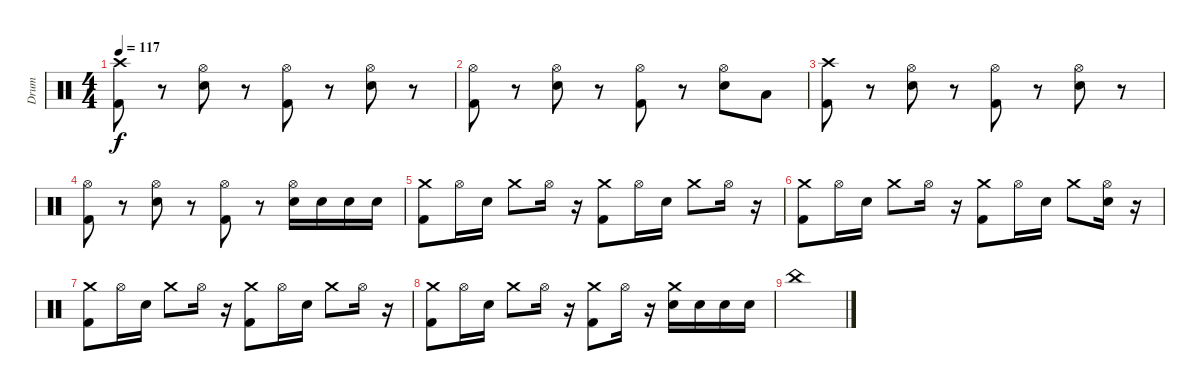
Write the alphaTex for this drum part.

\track ("Drum" "Drum") {instrument percussion}
\staff {score}
\articulation defaults
\ts (4 4)
\tempo 117
\clef neutral
\ks c
("Crash high (hit)" "Kick (hit) 2").8{dy f} r.8 ("Hi-Hat (open)" "Electric Snare (hit)").8 r.8 ("Hi-Hat (open)" "Kick (hit) 2").8 r.8 ("Hi-Hat (open)" "Electric Snare (hit)").8 r.8 |
("Hi-Hat (open)" "Kick (hit) 2").8 r.8 ("Hi-Hat (open)" "Electric Snare (hit)").8 r.8 ("Hi-Hat (open)" "Kick (hit) 2").8 r.8 ("Hi-Hat (open)" "Electric Snare (hit)").8 "Low Tom (hit)".8 |
("Crash high (hit)" "Kick (hit) 2").8 r.8 ("Hi-Hat (open)" "Electric Snare (hit)").8 r.8 ("Hi-Hat (open)" "Kick (hit) 2").8 r.8 ("Hi-Hat (open)" "Electric Snare (hit)").8 r.8 |
("Hi-Hat (open)" "Kick (hit) 2").8 r.8 ("Hi-Hat (open)" "Electric Snare (hit)").8 r.8 ("Hi-Hat (open)" "Kick (hit) 2").8 r.8 ("Hi-Hat (open)" "Electric Snare (hit)").16 "Electric Snare (hit)".16 "Electric Snare (hit)".16 "Electric Snare (hit)".16 |
("Crash medium (hit)" "Kick (hit) 2").8 "Hi-Hat (open)".16 "Electric Snare (hit)".16 "Crash medium (hit)".8 "Hi-Hat (open)".16 r.16 ("Crash medium (hit)" "Kick (hit) 2").8 "Hi-Hat (open)".16 "Electric Snare (hit)".16 "Crash medium (hit)".8 "Hi-Hat (open)".16 r.16 |
("Crash medium (hit)" "Kick (hit) 2").8 "Hi-Hat (open)".16 "Electric Snare (hit)".16 "Crash medium (hit)".8 "Hi-Hat (open)".16 r.16 ("Crash medium (hit)" "Kick (hit) 2").8 "Hi-Hat (open)".16 "Electric Snare (hit)".16 "Crash medium (hit)".8 ("Hi-Hat (open)" "Electric Snare (hit)").16 r.16 |
("Crash medium (hit)" "Kick (hit) 2").8 "Hi-Hat (open)".16 "Electric Snare (hit)".16 "Crash medium (hit)".8 "Hi-Hat (open)".16 r.16 ("Crash medium (hit)" "Kick (hit) 2").8 "Hi-Hat (open)".16 "Electric Snare (hit)".16 "Crash medium (hit)".8 "Hi-Hat (open)".16 r.16 |
("Crash medium (hit)" "Kick (hit) 2").8 "Hi-Hat (open)".16 "Electric Snare (hit)".16 "Crash medium (hit)".8 "Hi-Hat (open)".16 r.16 ("Crash medium (hit)" "Kick (hit) 2").8 "Hi-Hat (open)".16 r.16 ("Crash medium (hit)" "Electric Snare (hit)").16 "Electric Snare (hit)".16 "Electric Snare (hit)".16 "Electric Snare (hit)".16 |
"China (hit)".1
